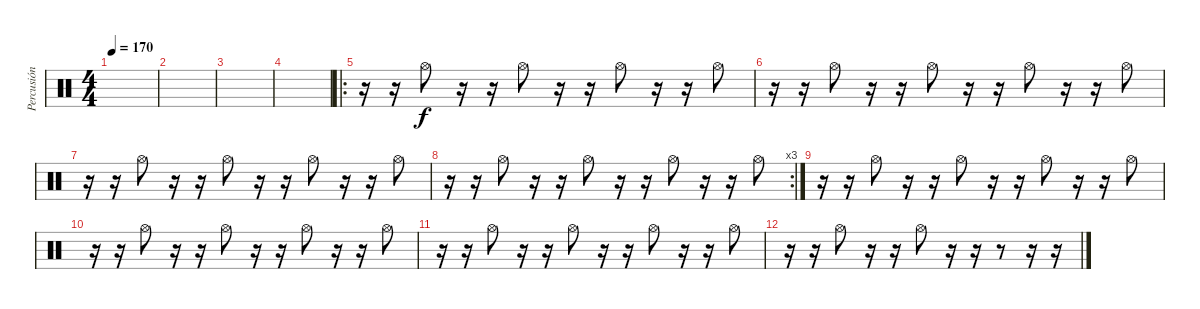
\track ("Percusión" "Percusión") {instrument percussion}
\staff {score}
\articulation defaults
\ts (4 4)
\tempo 170
\clef neutral
\ks c
|
|
|
|
\ro
r.16 r.16 "Hi-Hat (open)".8 r.16 r.16 "Hi-Hat (open)".8 r.16 r.16 "Hi-Hat (open)".8 r.16 r.16 "Hi-Hat (open)".8 |
r.16 r.16 "Hi-Hat (open)".8 r.16 r.16 "Hi-Hat (open)".8 r.16 r.16 "Hi-Hat (open)".8 r.16 r.16 "Hi-Hat (open)".8 |
r.16 r.16 "Hi-Hat (open)".8 r.16 r.16 "Hi-Hat (open)".8 r.16 r.16 "Hi-Hat (open)".8 r.16 r.16 "Hi-Hat (open)".8 |
\rc 3
r.16 r.16 "Hi-Hat (open)".8 r.16 r.16 "Hi-Hat (open)".8 r.16 r.16 "Hi-Hat (open)".8 r.16 r.16 "Hi-Hat (open)".8 |
r.16 r.16 "Hi-Hat (open)".8 r.16 r.16 "Hi-Hat (open)".8 r.16 r.16 "Hi-Hat (open)".8 r.16 r.16 "Hi-Hat (open)".8 |
r.16 r.16 "Hi-Hat (open)".8 r.16 r.16 "Hi-Hat (open)".8 r.16 r.16 "Hi-Hat (open)".8 r.16 r.16 "Hi-Hat (open)".8 |
r.16 r.16 "Hi-Hat (open)".8 r.16 r.16 "Hi-Hat (open)".8 r.16 r.16 "Hi-Hat (open)".8 r.16 r.16 "Hi-Hat (open)".8 |
r.16 r.16 "Hi-Hat (open)".8 r.16 r.16 "Hi-Hat (open)".8 r.16 r.16 r.8 r.16 r.16
